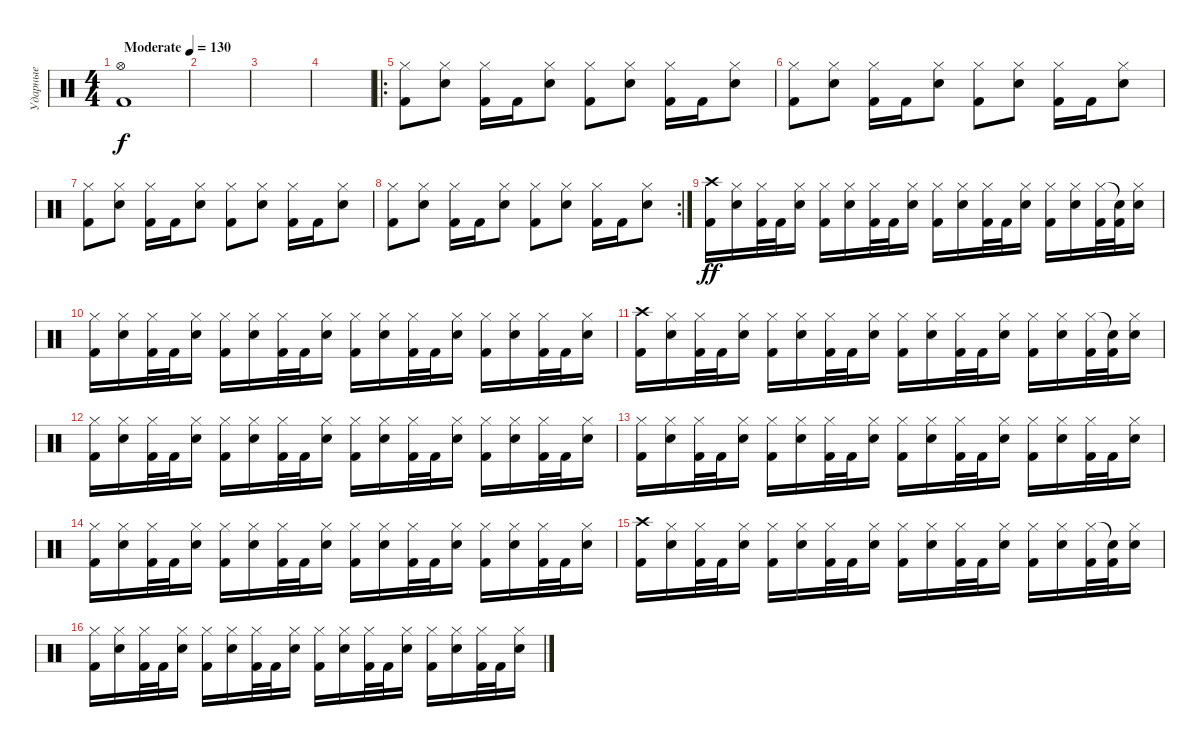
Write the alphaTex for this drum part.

\track ("Ударные" "Ударные") {instrument percussion}
\staff {score}
\articulation defaults
\ts (4 4)
\tempo (130 "Moderate")
\clef neutral
\ks c
("Hi-Hat (open)" "Kick (hit) 2").1{dy f} |
|
|
|
\ro
("Hi-Hat (closed)" "Kick (hit) 2").8 ("Hi-Hat (closed)" "Electric Snare (hit)").8 ("Hi-Hat (closed)" "Kick (hit) 2").16 "Kick (hit) 2".16 ("Hi-Hat (closed)" "Electric Snare (hit)").8 ("Hi-Hat (closed)" "Kick (hit) 2").8 ("Hi-Hat (closed)" "Electric Snare (hit)").8 ("Hi-Hat (closed)" "Kick (hit) 2").16 "Kick (hit) 2".16 ("Hi-Hat (closed)" "Electric Snare (hit)").8 |
("Hi-Hat (closed)" "Kick (hit) 2").8 ("Hi-Hat (closed)" "Electric Snare (hit)").8 ("Hi-Hat (closed)" "Kick (hit) 2").16 "Kick (hit) 2".16 ("Hi-Hat (closed)" "Electric Snare (hit)").8 ("Hi-Hat (closed)" "Kick (hit) 2").8 ("Hi-Hat (closed)" "Electric Snare (hit)").8 ("Hi-Hat (closed)" "Kick (hit) 2").16 "Kick (hit) 2".16 ("Hi-Hat (closed)" "Electric Snare (hit)").8 |
("Hi-Hat (closed)" "Kick (hit) 2").8 ("Hi-Hat (closed)" "Electric Snare (hit)").8 ("Hi-Hat (closed)" "Kick (hit) 2").16 "Kick (hit) 2".16 ("Hi-Hat (closed)" "Electric Snare (hit)").8 ("Hi-Hat (closed)" "Kick (hit) 2").8 ("Hi-Hat (closed)" "Electric Snare (hit)").8 ("Hi-Hat (closed)" "Kick (hit) 2").16 "Kick (hit) 2".16 ("Hi-Hat (closed)" "Electric Snare (hit)").8 |
\rc 2
("Hi-Hat (closed)" "Kick (hit) 2").8 ("Hi-Hat (closed)" "Electric Snare (hit)").8 ("Hi-Hat (closed)" "Kick (hit) 2").16 "Kick (hit) 2".16 ("Hi-Hat (closed)" "Electric Snare (hit)").8 ("Hi-Hat (closed)" "Kick (hit) 2").8 ("Hi-Hat (closed)" "Electric Snare (hit)").8 ("Hi-Hat (closed)" "Kick (hit) 2").16 "Kick (hit) 2".16 ("Hi-Hat (closed)" "Electric Snare (hit)").8 |
("Crash high (hit)" "Kick (hit) 2").16{dy ff} ("Hi-Hat (closed)" "Electric Snare (hit)").16 ("Hi-Hat (closed)" "Kick (hit) 2").32 "Kick (hit) 2".32 ("Hi-Hat (closed)" "Electric Snare (hit)").16 ("Hi-Hat (closed)" "Kick (hit) 2").16 ("Hi-Hat (closed)" "Electric Snare (hit)").16 ("Hi-Hat (closed)" "Kick (hit) 2").32 "Kick (hit) 2".32 ("Hi-Hat (closed)" "Electric Snare (hit)").16 ("Hi-Hat (closed)" "Kick (hit) 2").16 ("Hi-Hat (closed)" "Electric Snare (hit)").16 ("Hi-Hat (closed)" "Kick (hit) 2").32 "Kick (hit) 2".32 ("Hi-Hat (closed)" "Electric Snare (hit)").16 ("Hi-Hat (closed)" "Kick (hit) 2").16 ("Hi-Hat (closed)" "Electric Snare (hit)").16 ("Hi-Hat (closed)" "Kick (hit) 2").32 ("Snare (hit)"{t} "Kick (hit) 2").32 ("Hi-Hat (closed)" "Electric Snare (hit)").16 |
("Hi-Hat (closed)" "Kick (hit) 2").16 ("Hi-Hat (closed)" "Electric Snare (hit)").16 ("Hi-Hat (closed)" "Kick (hit) 2").32 "Kick (hit) 2".32 ("Hi-Hat (closed)" "Electric Snare (hit)").16 ("Hi-Hat (closed)" "Kick (hit) 2").16 ("Hi-Hat (closed)" "Electric Snare (hit)").16 ("Hi-Hat (closed)" "Kick (hit) 2").32 "Kick (hit) 2".32 ("Hi-Hat (closed)" "Electric Snare (hit)").16 ("Hi-Hat (closed)" "Kick (hit) 2").16 ("Hi-Hat (closed)" "Electric Snare (hit)").16 ("Hi-Hat (closed)" "Kick (hit) 2").32 "Kick (hit) 2".32 ("Hi-Hat (closed)" "Electric Snare (hit)").16 ("Hi-Hat (closed)" "Kick (hit) 2").16 ("Hi-Hat (closed)" "Electric Snare (hit)").16 ("Hi-Hat (closed)" "Kick (hit) 2").32 "Kick (hit) 2".32 ("Hi-Hat (closed)" "Electric Snare (hit)").16 |
("Crash high (hit)" "Kick (hit) 2").16 ("Hi-Hat (closed)" "Electric Snare (hit)").16 ("Hi-Hat (closed)" "Kick (hit) 2").32 "Kick (hit) 2".32 ("Hi-Hat (closed)" "Electric Snare (hit)").16 ("Hi-Hat (closed)" "Kick (hit) 2").16 ("Hi-Hat (closed)" "Electric Snare (hit)").16 ("Hi-Hat (closed)" "Kick (hit) 2").32 "Kick (hit) 2".32 ("Hi-Hat (closed)" "Electric Snare (hit)").16 ("Hi-Hat (closed)" "Kick (hit) 2").16 ("Hi-Hat (closed)" "Electric Snare (hit)").16 ("Hi-Hat (closed)" "Kick (hit) 2").32 "Kick (hit) 2".32 ("Hi-Hat (closed)" "Electric Snare (hit)").16 ("Hi-Hat (closed)" "Kick (hit) 2").16 ("Hi-Hat (closed)" "Electric Snare (hit)").16 ("Hi-Hat (closed)" "Kick (hit) 2").32 ("Snare (hit)"{t} "Kick (hit) 2").32 ("Hi-Hat (closed)" "Electric Snare (hit)").16 |
("Hi-Hat (closed)" "Kick (hit) 2").16 ("Hi-Hat (closed)" "Electric Snare (hit)").16 ("Hi-Hat (closed)" "Kick (hit) 2").32 "Kick (hit) 2".32 ("Hi-Hat (closed)" "Electric Snare (hit)").16 ("Hi-Hat (closed)" "Kick (hit) 2").16 ("Hi-Hat (closed)" "Electric Snare (hit)").16 ("Hi-Hat (closed)" "Kick (hit) 2").32 "Kick (hit) 2".32 ("Hi-Hat (closed)" "Electric Snare (hit)").16 ("Hi-Hat (closed)" "Kick (hit) 2").16 ("Hi-Hat (closed)" "Electric Snare (hit)").16 ("Hi-Hat (closed)" "Kick (hit) 2").32 "Kick (hit) 2".32 ("Hi-Hat (closed)" "Electric Snare (hit)").16 ("Hi-Hat (closed)" "Kick (hit) 2").16 ("Hi-Hat (closed)" "Electric Snare (hit)").16 ("Hi-Hat (closed)" "Kick (hit) 2").32 "Kick (hit) 2".32 ("Hi-Hat (closed)" "Electric Snare (hit)").16 |
("Hi-Hat (closed)" "Kick (hit) 2").16 ("Hi-Hat (closed)" "Electric Snare (hit)").16 ("Hi-Hat (closed)" "Kick (hit) 2").32 "Kick (hit) 2".32 ("Hi-Hat (closed)" "Electric Snare (hit)").16 ("Hi-Hat (closed)" "Kick (hit) 2").16 ("Hi-Hat (closed)" "Electric Snare (hit)").16 ("Hi-Hat (closed)" "Kick (hit) 2").32 "Kick (hit) 2".32 ("Hi-Hat (closed)" "Electric Snare (hit)").16 ("Hi-Hat (closed)" "Kick (hit) 2").16 ("Hi-Hat (closed)" "Electric Snare (hit)").16 ("Hi-Hat (closed)" "Kick (hit) 2").32 "Kick (hit) 2".32 ("Hi-Hat (closed)" "Electric Snare (hit)").16 ("Hi-Hat (closed)" "Kick (hit) 2").16 ("Hi-Hat (closed)" "Electric Snare (hit)").16 ("Hi-Hat (closed)" "Kick (hit) 2").32 "Kick (hit) 2".32 ("Hi-Hat (closed)" "Electric Snare (hit)").16 |
("Hi-Hat (closed)" "Kick (hit) 2").16 ("Hi-Hat (closed)" "Electric Snare (hit)").16 ("Hi-Hat (closed)" "Kick (hit) 2").32 "Kick (hit) 2".32 ("Hi-Hat (closed)" "Electric Snare (hit)").16 ("Hi-Hat (closed)" "Kick (hit) 2").16 ("Hi-Hat (closed)" "Electric Snare (hit)").16 ("Hi-Hat (closed)" "Kick (hit) 2").32 "Kick (hit) 2".32 ("Hi-Hat (closed)" "Electric Snare (hit)").16 ("Hi-Hat (closed)" "Kick (hit) 2").16 ("Hi-Hat (closed)" "Electric Snare (hit)").16 ("Hi-Hat (closed)" "Kick (hit) 2").32 "Kick (hit) 2".32 ("Hi-Hat (closed)" "Electric Snare (hit)").16 ("Hi-Hat (closed)" "Kick (hit) 2").16 ("Hi-Hat (closed)" "Electric Snare (hit)").16 ("Hi-Hat (closed)" "Kick (hit) 2").32 "Kick (hit) 2".32 ("Hi-Hat (closed)" "Electric Snare (hit)").16 |
("Crash high (hit)" "Kick (hit) 2").16 ("Hi-Hat (closed)" "Electric Snare (hit)").16 ("Hi-Hat (closed)" "Kick (hit) 2").32 "Kick (hit) 2".32 ("Hi-Hat (closed)" "Electric Snare (hit)").16 ("Hi-Hat (closed)" "Kick (hit) 2").16 ("Hi-Hat (closed)" "Electric Snare (hit)").16 ("Hi-Hat (closed)" "Kick (hit) 2").32 "Kick (hit) 2".32 ("Hi-Hat (closed)" "Electric Snare (hit)").16 ("Hi-Hat (closed)" "Kick (hit) 2").16 ("Hi-Hat (closed)" "Electric Snare (hit)").16 ("Hi-Hat (closed)" "Kick (hit) 2").32 "Kick (hit) 2".32 ("Hi-Hat (closed)" "Electric Snare (hit)").16 ("Hi-Hat (closed)" "Kick (hit) 2").16 ("Hi-Hat (closed)" "Electric Snare (hit)").16 ("Hi-Hat (closed)" "Kick (hit) 2").32 ("Snare (hit)"{t} "Kick (hit) 2").32 ("Hi-Hat (closed)" "Electric Snare (hit)").16 |
("Hi-Hat (closed)" "Kick (hit) 2").16 ("Hi-Hat (closed)" "Electric Snare (hit)").16 ("Hi-Hat (closed)" "Kick (hit) 2").32 "Kick (hit) 2".32 ("Hi-Hat (closed)" "Electric Snare (hit)").16 ("Hi-Hat (closed)" "Kick (hit) 2").16 ("Hi-Hat (closed)" "Electric Snare (hit)").16 ("Hi-Hat (closed)" "Kick (hit) 2").32 "Kick (hit) 2".32 ("Hi-Hat (closed)" "Electric Snare (hit)").16 ("Hi-Hat (closed)" "Kick (hit) 2").16 ("Hi-Hat (closed)" "Electric Snare (hit)").16 ("Hi-Hat (closed)" "Kick (hit) 2").32 "Kick (hit) 2".32 ("Hi-Hat (closed)" "Electric Snare (hit)").16 ("Hi-Hat (closed)" "Kick (hit) 2").16 ("Hi-Hat (closed)" "Electric Snare (hit)").16 ("Hi-Hat (closed)" "Kick (hit) 2").32 "Kick (hit) 2".32 ("Hi-Hat (closed)" "Electric Snare (hit)").16
